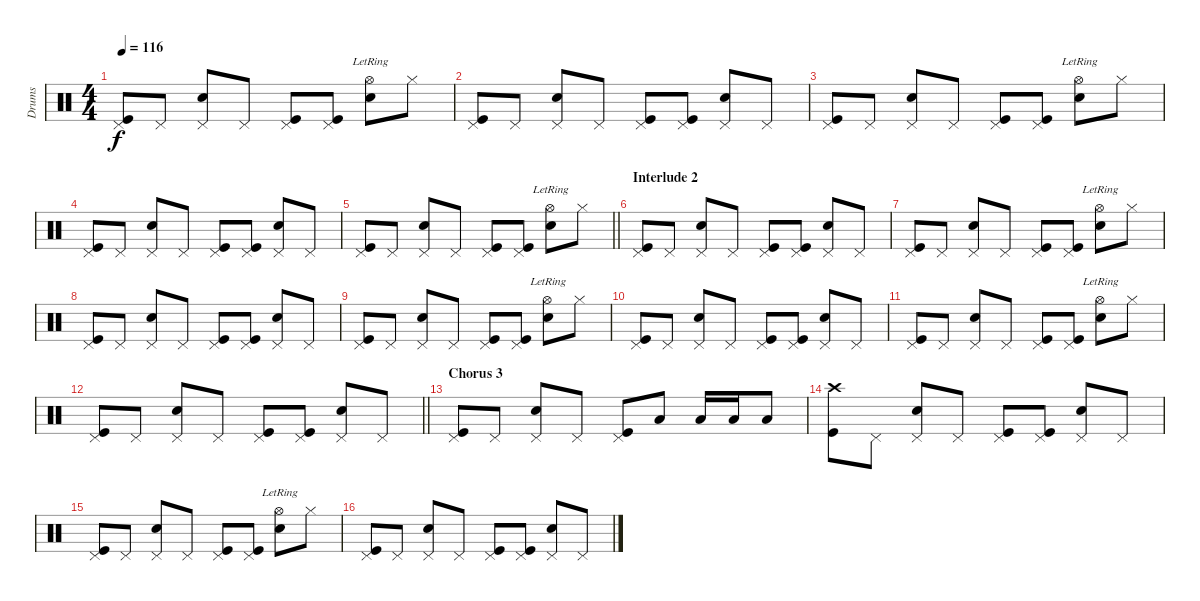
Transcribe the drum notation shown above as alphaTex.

\track ("Drums" "Drums") {instrument percussion}
\staff {score}
\articulation defaults
\ts (4 4)
\tempo 116
\clef neutral
\ks c
("Pedal Hi-Hat (hit)" "Kick (hit)").8{dy f} "Pedal Hi-Hat (hit)".8 ("Pedal Hi-Hat (hit)" "Snare (hit) 2").8 "Pedal Hi-Hat (hit)".8 ("Pedal Hi-Hat (hit)" "Kick (hit)").8 ("Pedal Hi-Hat (hit)" "Kick (hit)").8 ("Hi-Hat (open)"{lr} "Snare (hit) 2").8 "Hi-Hat (closed)".8 |
("Pedal Hi-Hat (hit)" "Kick (hit)").8 "Pedal Hi-Hat (hit)".8 ("Pedal Hi-Hat (hit)" "Snare (hit) 2").8 "Pedal Hi-Hat (hit)".8 ("Pedal Hi-Hat (hit)" "Kick (hit)").8 ("Pedal Hi-Hat (hit)" "Kick (hit)").8 ("Pedal Hi-Hat (hit)" "Snare (hit) 2").8 "Pedal Hi-Hat (hit)".8 |
("Pedal Hi-Hat (hit)" "Kick (hit)").8 "Pedal Hi-Hat (hit)".8 ("Pedal Hi-Hat (hit)" "Snare (hit) 2").8 "Pedal Hi-Hat (hit)".8 ("Pedal Hi-Hat (hit)" "Kick (hit)").8 ("Pedal Hi-Hat (hit)" "Kick (hit)").8 ("Hi-Hat (open)"{lr} "Snare (hit) 2").8 "Hi-Hat (closed)".8 |
("Pedal Hi-Hat (hit)" "Kick (hit)").8 "Pedal Hi-Hat (hit)".8 ("Pedal Hi-Hat (hit)" "Snare (hit) 2").8 "Pedal Hi-Hat (hit)".8 ("Pedal Hi-Hat (hit)" "Kick (hit)").8 ("Pedal Hi-Hat (hit)" "Kick (hit)").8 ("Pedal Hi-Hat (hit)" "Snare (hit) 2").8 "Pedal Hi-Hat (hit)".8 |
\barLineRight lightlight
("Pedal Hi-Hat (hit)" "Kick (hit)").8 "Pedal Hi-Hat (hit)".8 ("Pedal Hi-Hat (hit)" "Snare (hit) 2").8 "Pedal Hi-Hat (hit)".8 ("Pedal Hi-Hat (hit)" "Kick (hit)").8 ("Pedal Hi-Hat (hit)" "Kick (hit)").8 ("Hi-Hat (open)"{lr} "Snare (hit) 2").8 "Hi-Hat (closed)".8 |
\section ("" "Interlude 2")
("Pedal Hi-Hat (hit)" "Kick (hit)").8 "Pedal Hi-Hat (hit)".8 ("Pedal Hi-Hat (hit)" "Snare (hit) 2").8 "Pedal Hi-Hat (hit)".8 ("Pedal Hi-Hat (hit)" "Kick (hit)").8 ("Pedal Hi-Hat (hit)" "Kick (hit)").8 ("Pedal Hi-Hat (hit)" "Snare (hit) 2").8 "Pedal Hi-Hat (hit)".8 |
("Pedal Hi-Hat (hit)" "Kick (hit)").8 "Pedal Hi-Hat (hit)".8 ("Pedal Hi-Hat (hit)" "Snare (hit) 2").8 "Pedal Hi-Hat (hit)".8 ("Pedal Hi-Hat (hit)" "Kick (hit)").8 ("Pedal Hi-Hat (hit)" "Kick (hit)").8 ("Hi-Hat (open)"{lr} "Snare (hit) 2").8 "Hi-Hat (closed)".8 |
("Pedal Hi-Hat (hit)" "Kick (hit)").8 "Pedal Hi-Hat (hit)".8 ("Pedal Hi-Hat (hit)" "Snare (hit) 2").8 "Pedal Hi-Hat (hit)".8 ("Pedal Hi-Hat (hit)" "Kick (hit)").8 ("Pedal Hi-Hat (hit)" "Kick (hit)").8 ("Pedal Hi-Hat (hit)" "Snare (hit) 2").8 "Pedal Hi-Hat (hit)".8 |
("Pedal Hi-Hat (hit)" "Kick (hit)").8 "Pedal Hi-Hat (hit)".8 ("Pedal Hi-Hat (hit)" "Snare (hit) 2").8 "Pedal Hi-Hat (hit)".8 ("Pedal Hi-Hat (hit)" "Kick (hit)").8 ("Pedal Hi-Hat (hit)" "Kick (hit)").8 ("Hi-Hat (open)"{lr} "Snare (hit) 2").8 "Hi-Hat (closed)".8 |
("Pedal Hi-Hat (hit)" "Kick (hit)").8 "Pedal Hi-Hat (hit)".8 ("Pedal Hi-Hat (hit)" "Snare (hit) 2").8 "Pedal Hi-Hat (hit)".8 ("Pedal Hi-Hat (hit)" "Kick (hit)").8 ("Pedal Hi-Hat (hit)" "Kick (hit)").8 ("Pedal Hi-Hat (hit)" "Snare (hit) 2").8 "Pedal Hi-Hat (hit)".8 |
("Pedal Hi-Hat (hit)" "Kick (hit)").8 "Pedal Hi-Hat (hit)".8 ("Pedal Hi-Hat (hit)" "Snare (hit) 2").8 "Pedal Hi-Hat (hit)".8 ("Pedal Hi-Hat (hit)" "Kick (hit)").8 ("Pedal Hi-Hat (hit)" "Kick (hit)").8 ("Hi-Hat (open)"{lr} "Snare (hit) 2").8 "Hi-Hat (closed)".8 |
\barLineRight lightlight
("Pedal Hi-Hat (hit)" "Kick (hit)").8 "Pedal Hi-Hat (hit)".8 ("Pedal Hi-Hat (hit)" "Snare (hit) 2").8 "Pedal Hi-Hat (hit)".8 ("Pedal Hi-Hat (hit)" "Kick (hit)").8 ("Pedal Hi-Hat (hit)" "Kick (hit)").8 ("Pedal Hi-Hat (hit)" "Snare (hit) 2").8 "Pedal Hi-Hat (hit)".8 |
\section ("" "Chorus 3")
("Pedal Hi-Hat (hit)" "Kick (hit)").8 "Pedal Hi-Hat (hit)".8 ("Pedal Hi-Hat (hit)" "Snare (hit) 2").8 "Pedal Hi-Hat (hit)".8 ("Pedal Hi-Hat (hit)" "Kick (hit)").8 "Low Tom (hit)".8 "Low Tom (hit)".16 "Low Tom (hit)".16 "Low Tom (hit)".8 |
("Crash high (hit)" "Kick (hit)").8 "Pedal Hi-Hat (hit)".8 ("Pedal Hi-Hat (hit)" "Snare (hit) 2").8 "Pedal Hi-Hat (hit)".8 ("Pedal Hi-Hat (hit)" "Kick (hit)").8 ("Pedal Hi-Hat (hit)" "Kick (hit)").8 ("Pedal Hi-Hat (hit)" "Snare (hit) 2").8 "Pedal Hi-Hat (hit)".8 |
("Pedal Hi-Hat (hit)" "Kick (hit)").8 "Pedal Hi-Hat (hit)".8 ("Pedal Hi-Hat (hit)" "Snare (hit) 2").8 "Pedal Hi-Hat (hit)".8 ("Pedal Hi-Hat (hit)" "Kick (hit)").8 ("Pedal Hi-Hat (hit)" "Kick (hit)").8 ("Hi-Hat (open)"{lr} "Snare (hit) 2").8 "Hi-Hat (closed)".8 |
("Pedal Hi-Hat (hit)" "Kick (hit)").8 "Pedal Hi-Hat (hit)".8 ("Pedal Hi-Hat (hit)" "Snare (hit) 2").8 "Pedal Hi-Hat (hit)".8 ("Pedal Hi-Hat (hit)" "Kick (hit)").8 ("Pedal Hi-Hat (hit)" "Kick (hit)").8 ("Pedal Hi-Hat (hit)" "Snare (hit) 2").8 "Pedal Hi-Hat (hit)".8
